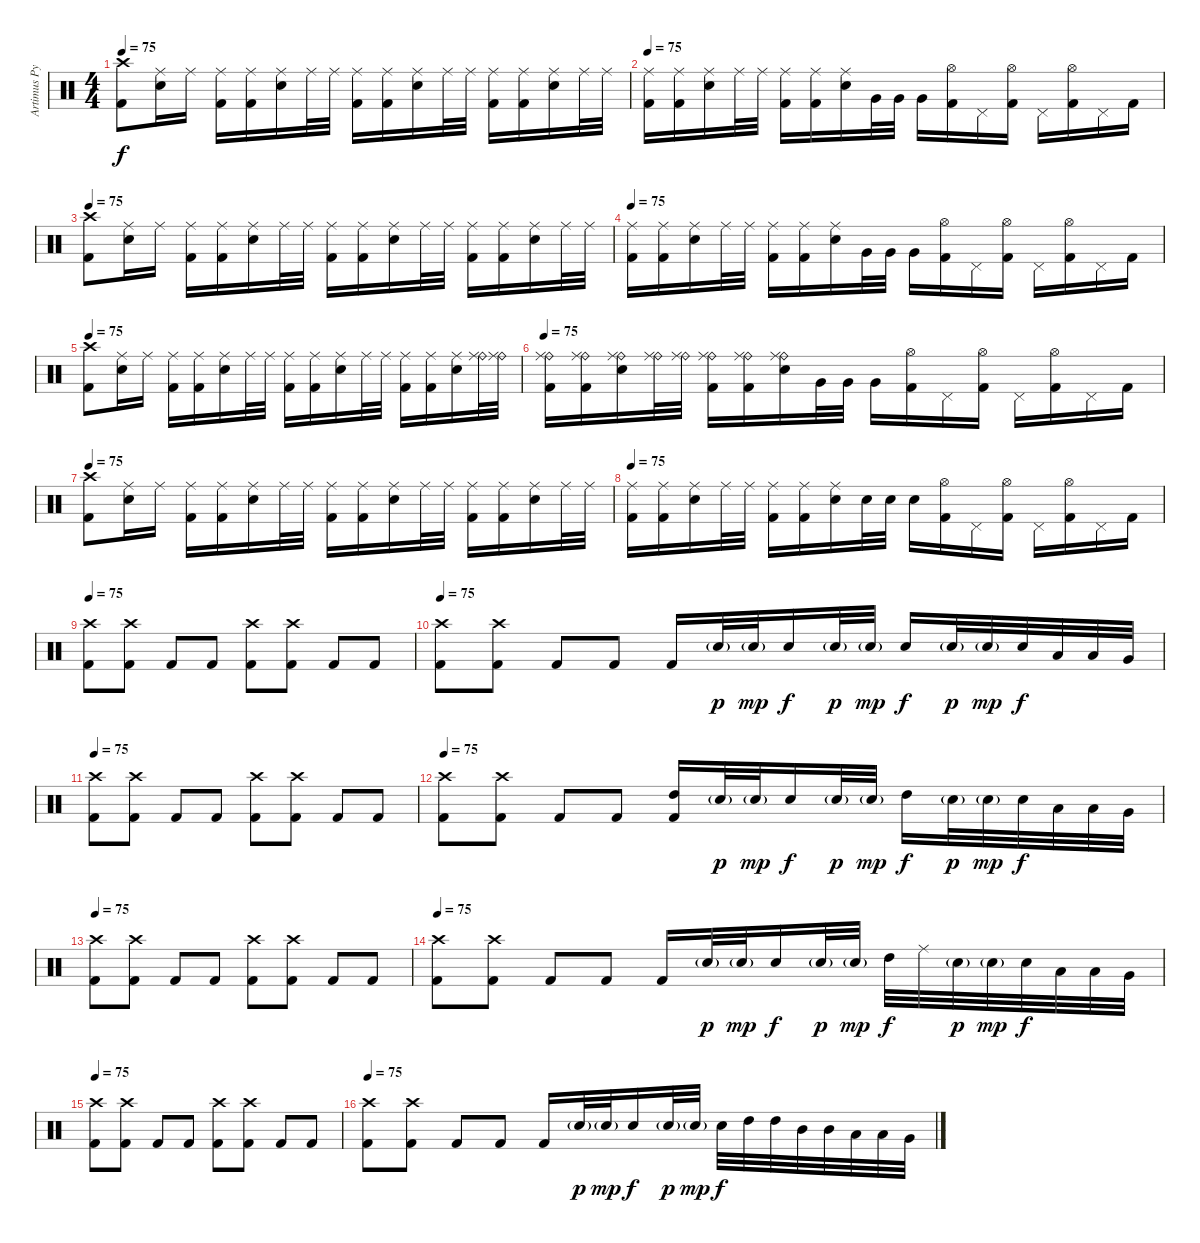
\track ("Artimus Pyle (drums)" "Artimus Py") {instrument percussion}
\staff {score}
\articulation defaults
\ts (4 4)
\tempo 75
\clef neutral
\ks c
("Crash high (hit)" "Kick (hit) 2").8{dy f} ("Ride (middle)" "Electric Snare (hit)").16 "Ride (middle)".16 ("Ride (middle)" "Kick (hit) 2").16 ("Ride (middle)" "Kick (hit) 2").16 ("Ride (middle)" "Electric Snare (hit)").16 "Ride (middle)".32 "Ride (middle)".32 ("Ride (middle)" "Kick (hit) 2").16 ("Ride (middle)" "Kick (hit) 2").16 ("Ride (middle)" "Electric Snare (hit)").16 "Ride (middle)".32 "Ride (middle)".32 ("Ride (middle)" "Kick (hit) 2").16 ("Ride (middle)" "Kick (hit) 2").16 ("Ride (middle)" "Electric Snare (hit)").16 "Ride (middle)".32 "Ride (middle)".32 |
\tempo 75
("Ride (middle)" "Kick (hit) 2").16 ("Ride (middle)" "Kick (hit) 2").16 ("Ride (middle)" "Electric Snare (hit)").16 "Ride (middle)".32 "Ride (middle)".32 ("Ride (middle)" "Kick (hit) 2").16 ("Ride (middle)" "Kick (hit) 2").16 ("Ride (middle)" "Electric Snare (hit)").16 "Very Low Tom (hit)".32 "Very Low Tom (hit)".32 "Very Low Tom (hit)".16 ("Hi-Hat (open)" "Kick (hit) 2").16 "Pedal Hi-Hat (hit)".16 ("Hi-Hat (open)" "Kick (hit) 2").16 "Pedal Hi-Hat (hit)".16 ("Hi-Hat (open)" "Kick (hit) 2").16 "Pedal Hi-Hat (hit)".16 "Kick (hit) 2".16 |
\tempo 75
("Crash high (hit)" "Kick (hit) 2").8 ("Ride (middle)" "Electric Snare (hit)").16 "Ride (middle)".16 ("Ride (middle)" "Kick (hit) 2").16 ("Ride (middle)" "Kick (hit) 2").16 ("Ride (middle)" "Electric Snare (hit)").16 "Ride (middle)".32 "Ride (middle)".32 ("Ride (middle)" "Kick (hit) 2").16 ("Ride (middle)" "Kick (hit) 2").16 ("Ride (middle)" "Electric Snare (hit)").16 "Ride (middle)".32 "Ride (middle)".32 ("Ride (middle)" "Kick (hit) 2").16 ("Ride (middle)" "Kick (hit) 2").16 ("Ride (middle)" "Electric Snare (hit)").16 "Ride (middle)".32 "Ride (middle)".32 |
\tempo 75
("Ride (middle)" "Kick (hit) 2").16 ("Ride (middle)" "Kick (hit) 2").16 ("Ride (middle)" "Electric Snare (hit)").16 "Ride (middle)".32 "Ride (middle)".32 ("Ride (middle)" "Kick (hit) 2").16 ("Ride (middle)" "Kick (hit) 2").16 ("Ride (middle)" "Electric Snare (hit)").16 "Very Low Tom (hit)".32 "Very Low Tom (hit)".32 "Very Low Tom (hit)".16 ("Hi-Hat (open)" "Kick (hit) 2").16 "Pedal Hi-Hat (hit)".16 ("Hi-Hat (open)" "Kick (hit) 2").16 "Pedal Hi-Hat (hit)".16 ("Hi-Hat (open)" "Kick (hit) 2").16 "Pedal Hi-Hat (hit)".16 "Kick (hit) 2".16 |
\tempo 75
("Crash high (hit)" "Kick (hit) 2").8 ("Ride (middle)" "Electric Snare (hit)").16 "Ride (middle)".16 ("Ride (middle)" "Kick (hit) 2").16 ("Ride (middle)" "Kick (hit) 2").16 ("Ride (middle)" "Electric Snare (hit)").16 "Ride (middle)".32 "Ride (middle)".32 ("Ride (middle)" "Kick (hit) 2").16 ("Ride (middle)" "Kick (hit) 2").16 ("Ride (middle)" "Electric Snare (hit)").16 "Ride (middle)".32 "Ride (middle)".32 ("Ride (middle)" "Kick (hit) 2").16 ("Ride (middle)" "Kick (hit) 2").16 ("Ride (middle)" "Electric Snare (hit)").16 ("Ride (bell)" "Ride (middle)").32 ("Ride (bell)" "Ride (middle)").32 |
\tempo 75
("Ride (bell)" "Ride (middle)" "Kick (hit) 2").16 ("Ride (bell)" "Ride (middle)" "Kick (hit) 2").16 ("Ride (bell)" "Ride (middle)" "Electric Snare (hit)").16 ("Ride (bell)" "Ride (middle)").32 ("Ride (bell)" "Ride (middle)").32 ("Ride (bell)" "Ride (middle)" "Kick (hit) 2").16 ("Ride (bell)" "Ride (middle)" "Kick (hit) 2").16 ("Ride (bell)" "Ride (middle)" "Electric Snare (hit)").16 "Very Low Tom (hit)".32 "Very Low Tom (hit)".32 "Very Low Tom (hit)".16 ("Hi-Hat (open)" "Kick (hit) 2").16 "Pedal Hi-Hat (hit)".16 ("Hi-Hat (open)" "Kick (hit) 2").16 "Pedal Hi-Hat (hit)".16 ("Hi-Hat (open)" "Kick (hit) 2").16 "Pedal Hi-Hat (hit)".16 "Kick (hit) 2".16 |
\tempo 75
("Crash high (hit)" "Kick (hit) 2").8 ("Ride (middle)" "Electric Snare (hit)").16 "Ride (middle)".16 ("Ride (middle)" "Kick (hit) 2").16{volume 13} ("Ride (middle)" "Kick (hit) 2").16 ("Ride (middle)" "Electric Snare (hit)").16 "Ride (middle)".32 "Ride (middle)".32 ("Ride (middle)" "Kick (hit) 2").16 ("Ride (middle)" "Kick (hit) 2").16 ("Ride (middle)" "Electric Snare (hit)").16 "Ride (middle)".32 "Ride (middle)".32 ("Ride (middle)" "Kick (hit) 2").16 ("Ride (middle)" "Kick (hit) 2").16 ("Ride (middle)" "Electric Snare (hit)").16 "Ride (middle)".32 "Ride (middle)".32 |
\tempo 75
("Ride (middle)" "Kick (hit) 2").16 ("Ride (middle)" "Kick (hit) 2").16 ("Ride (middle)" "Electric Snare (hit)").16 "Ride (middle)".32 "Ride (middle)".32 ("Ride (middle)" "Kick (hit) 2").16 ("Ride (middle)" "Kick (hit) 2").16 ("Ride (middle)" "Electric Snare (hit)").16 "Electric Snare (hit)".32 "Electric Snare (hit)".32 "Electric Snare (hit)".16 ("Hi-Hat (open)" "Kick (hit) 2").16 "Pedal Hi-Hat (hit)".16 ("Hi-Hat (open)" "Kick (hit) 2").16 "Pedal Hi-Hat (hit)".16 ("Hi-Hat (open)" "Kick (hit) 2").16 "Pedal Hi-Hat (hit)".16 "Kick (hit) 2".16 |
\tempo 75
("Crash high (hit)" "Kick (hit) 2").8{volume 11} ("Crash high (hit)" "Kick (hit) 2").8 "Kick (hit) 2".8 "Kick (hit) 2".8 ("Crash high (hit)" "Kick (hit) 2").8 ("Crash high (hit)" "Kick (hit) 2").8 "Kick (hit) 2".8 "Kick (hit) 2".8 |
\tempo 75
("Crash high (hit)" "Kick (hit) 2").8 ("Crash high (hit)" "Kick (hit) 2").8 "Kick (hit) 2".8 "Kick (hit) 2".8 "Kick (hit) 2".16 "Electric Snare (hit)"{g}.32{dy p} "Electric Snare (hit)"{g}.32{dy mp} "Electric Snare (hit)".16{dy f} "Electric Snare (hit)"{g}.32{dy p} "Electric Snare (hit)"{g}.32{dy mp} "Electric Snare (hit)".16{dy f} "Electric Snare (hit)"{g}.32{dy p} "Electric Snare (hit)"{g}.32{dy mp} "Electric Snare (hit)".32{dy f} "Low Tom (hit)".32 "Low Tom (hit)".32 "Very Low Tom (hit)".32 |
\tempo 75
("Crash high (hit)" "Kick (hit) 2").8 ("Crash high (hit)" "Kick (hit) 2").8 "Kick (hit) 2".8 "Kick (hit) 2".8 ("Crash high (hit)" "Kick (hit) 2").8 ("Crash high (hit)" "Kick (hit) 2").8 "Kick (hit) 2".8 "Kick (hit) 2".8 |
\tempo 75
("Crash high (hit)" "Kick (hit) 2").8 ("Crash high (hit)" "Kick (hit) 2").8 "Kick (hit) 2".8 "Kick (hit) 2".8 ("High Tom (hit)" "Kick (hit) 2").16 "Electric Snare (hit)"{g}.32{dy p} "Electric Snare (hit)"{g}.32{dy mp} "Electric Snare (hit)".16{dy f} "Electric Snare (hit)"{g}.32{dy p} "Electric Snare (hit)"{g}.32{dy mp} "High Tom (hit)".16{dy f} "Electric Snare (hit)"{g}.32{dy p} "Electric Snare (hit)"{g}.32{dy mp} "Electric Snare (hit)".32{dy f} "Low Tom (hit)".32 "Low Tom (hit)".32 "Very Low Tom (hit)".32 |
\tempo 75
("Crash high (hit)" "Kick (hit) 2").8 ("Crash high (hit)" "Kick (hit) 2").8 "Kick (hit) 2".8 "Kick (hit) 2".8 ("Crash high (hit)" "Kick (hit) 2").8 ("Crash high (hit)" "Kick (hit) 2").8 "Kick (hit) 2".8 "Kick (hit) 2".8 |
\tempo 75
("Crash high (hit)" "Kick (hit) 2").8 ("Crash high (hit)" "Kick (hit) 2").8 "Kick (hit) 2".8 "Kick (hit) 2".8 "Kick (hit) 2".16 "Electric Snare (hit)"{g}.32{dy p} "Electric Snare (hit)"{g}.32{dy mp} "Electric Snare (hit)".16{dy f} "Electric Snare (hit)"{g}.32{dy p} "Electric Snare (hit)"{g}.32{dy mp} "High Tom (hit)".32{dy f} "Ride (middle)".32 "Electric Snare (hit)"{g}.32{dy p} "Electric Snare (hit)"{g}.32{dy mp} "Electric Snare (hit)".32{dy f} "Low Tom (hit)".32 "Low Tom (hit)".32 "Very Low Tom (hit)".32 |
\tempo 75
("Crash high (hit)" "Kick (hit) 2").8 ("Crash high (hit)" "Kick (hit) 2").8 "Kick (hit) 2".8 "Kick (hit) 2".8 ("Crash high (hit)" "Kick (hit) 2").8 ("Crash high (hit)" "Kick (hit) 2").8 "Kick (hit) 2".8 "Kick (hit) 2".8 |
\tempo 75
("Crash high (hit)" "Kick (hit) 2").8 ("Crash high (hit)" "Kick (hit) 2").8 "Kick (hit) 2".8 "Kick (hit) 2".8 "Kick (hit) 2".16 "Electric Snare (hit)"{g}.32{dy p} "Electric Snare (hit)"{g}.32{dy mp} "Electric Snare (hit)".16{dy f} "Electric Snare (hit)"{g}.32{dy p} "Electric Snare (hit)"{g}.32{dy mp} "Electric Snare (hit)".32{dy f} "High Tom (hit)".32 "High Tom (hit)".32 "Mid Tom (hit)".32 "Mid Tom (hit)".32 "Low Tom (hit)".32 "Low Tom (hit)".32 "Very Low Tom (hit)".32
